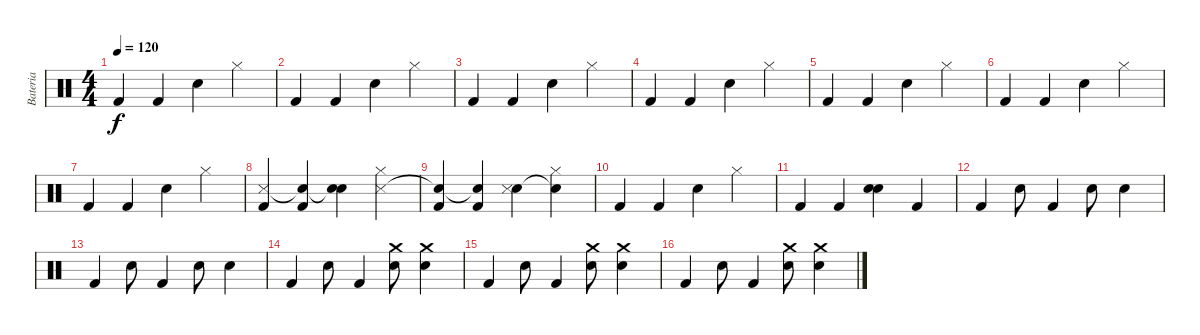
\track ("Bateria" "Bateria") {instrument percussion}
\staff {score}
\articulation defaults
\ts (4 4)
\tempo 120
\clef neutral
\ks c "Kick (hit) 2".4{dy f} "Kick (hit) 2".4 "Electric Snare (hit)".4 "Hi-Hat (closed)".4
|
"Kick (hit) 2".4 "Kick (hit) 2".4 "Electric Snare (hit)".4 "Hi-Hat (closed)".4 |
"Kick (hit) 2".4 "Kick (hit) 2".4 "Electric Snare (hit)".4 "Hi-Hat (closed)".4 |
"Kick (hit) 2".4 "Kick (hit) 2".4 "Electric Snare (hit)".4 "Hi-Hat (closed)".4 |
"Kick (hit) 2".4 "Kick (hit) 2".4 "Electric Snare (hit)".4 "Hi-Hat (closed)".4 |
"Kick (hit) 2".4 "Kick (hit) 2".4 "Electric Snare (hit)".4 "Hi-Hat (closed)".4 |
"Kick (hit) 2".4 "Kick (hit) 2".4 "Electric Snare (hit)".4 "Hi-Hat (closed)".4 |
("Kick (hit) 2" "Snare (side stick) 3").4 ("Kick (hit) 2" "Snare (hit)"{t}).4 ("Electric Snare (hit)" "Snare (hit)"{t}).4 ("Hi-Hat (closed)" "Snare (side stick) 3").4 |
("Kick (hit) 2" "Snare (hit)"{t}).4 ("Kick (hit) 2" "Snare (hit)"{t}).4 ("Electric Snare (hit)" "Snare (side stick) 3").4 ("Hi-Hat (closed)" "Snare (hit)"{t}).4 |
"Kick (hit) 2".4 "Kick (hit) 2".4 "Electric Snare (hit)".4 "Hi-Hat (closed)".4 |
"Kick (hit) 2".4 "Kick (hit) 2".4 ("Snare (hit) 2" "Electric Snare (hit)").4 "Kick (hit) 2".4 |
"Kick (hit) 2".4 "Electric Snare (hit)".8 "Kick (hit) 2".4 "Snare (hit) 2".8 "Snare (hit) 2".4 |
"Kick (hit) 2".4 "Electric Snare (hit)".8 "Kick (hit) 2".4 "Snare (hit) 2".8 "Snare (hit) 2".4 |
"Kick (hit) 2".4 "Electric Snare (hit)".8 "Kick (hit) 2".4 ("Crash medium (hit)" "Snare (hit) 2").8 ("Crash medium (hit)" "Snare (hit) 2").4 |
"Kick (hit) 2".4 "Electric Snare (hit)".8 "Kick (hit) 2".4 ("Crash medium (hit)" "Snare (hit) 2").8 ("Crash medium (hit)" "Snare (hit) 2").4 |
"Kick (hit) 2".4 "Electric Snare (hit)".8 "Kick (hit) 2".4 ("Crash medium (hit)" "Snare (hit) 2").8 ("Crash medium (hit)" "Snare (hit) 2").4
